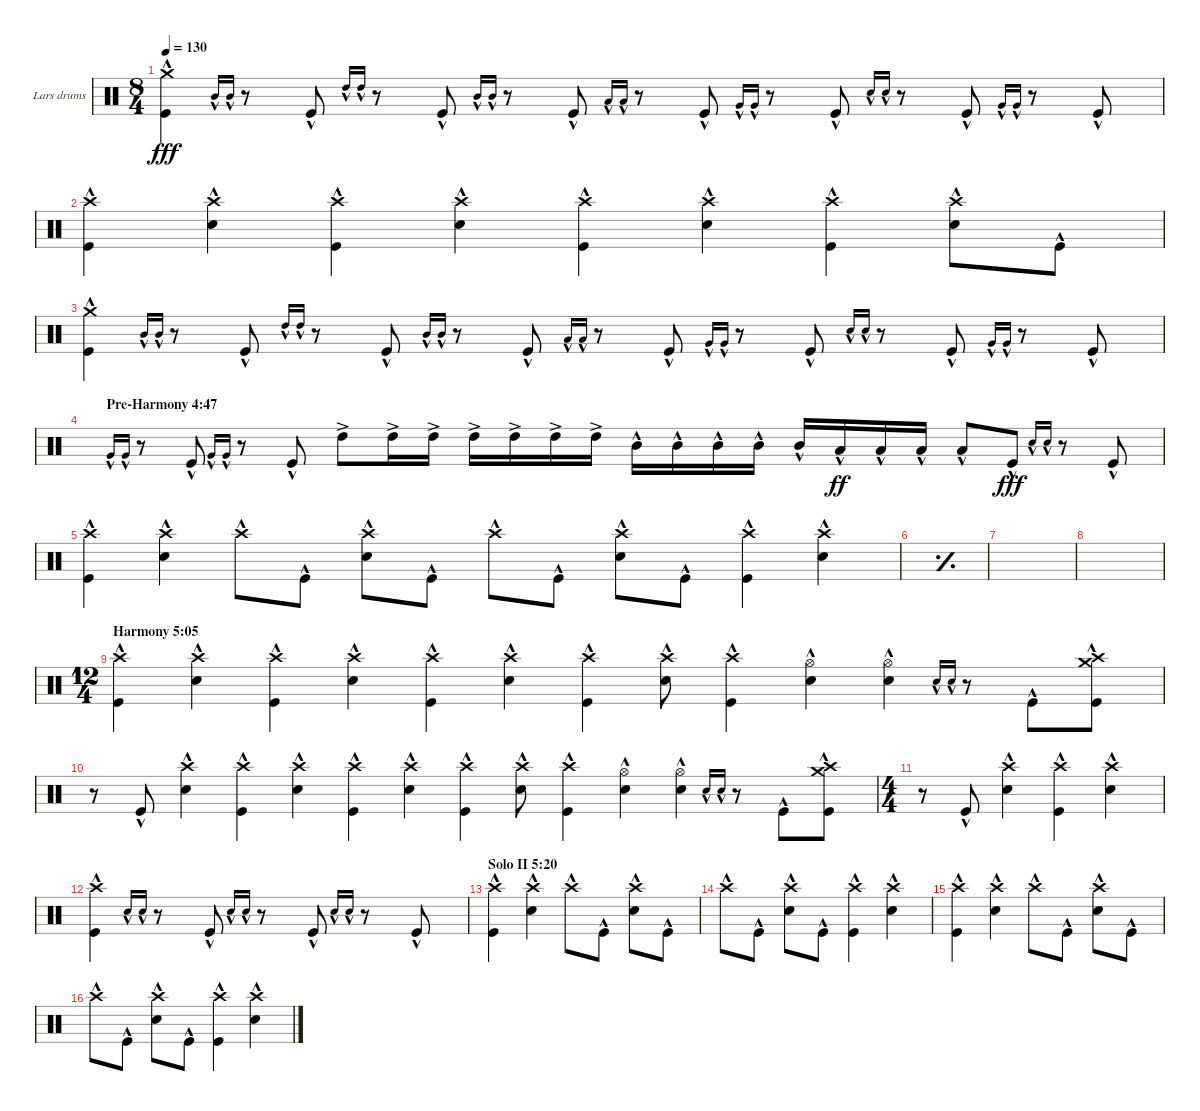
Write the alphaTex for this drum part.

\defaultSystemsLayout 4
\bracketExtendMode groupsimilarinstruments
\firstSystemTrackNameOrientation horizontal
\otherSystemsTrackNameOrientation horizontal
\track ("Lars drums" "Lars drums") {instrument percussion}
\staff {score}
\articulation defaults
\ts (8 4)
\tempo 130
\clef neutral
\ks c
("Crash medium (hit)"{hac} "Kick (hit)"{hac}).4{dy fff} "Mid Tom (hit)"{hac}.16{gr onbeat} "Mid Tom (hit)"{hac}.16{gr onbeat} r.8 "Kick (hit)"{hac}.8 "High Tom (hit)"{hac}.16{gr onbeat} "High Tom (hit)"{hac}.16{gr onbeat} r.8 "Kick (hit)"{hac}.8 "Mid Tom (hit)"{hac}.16{gr onbeat} "Mid Tom (hit)"{hac}.16{gr onbeat} r.8 "Kick (hit)"{hac}.8 "Low Tom (hit)"{hac}.16{gr onbeat} "Low Tom (hit)"{hac}.16{gr onbeat} r.8 "Kick (hit)"{hac}.8 "Very Low Tom (hit)"{hac}.16{gr onbeat} "Very Low Tom (hit)"{hac}.16{gr onbeat} r.8 "Kick (hit)"{hac}.8 "Snare (hit) 2"{hac}.16{gr onbeat} "Snare (hit) 2"{hac}.16{gr onbeat} r.8 "Kick (hit)"{hac}.8 "Very Low Tom (hit)"{hac}.16{gr onbeat} "Very Low Tom (hit)"{hac}.16{gr onbeat} r.8 "Kick (hit)"{hac}.8 |
("Crash high (hit)"{hac} "Kick (hit)"{hac}).4 ("Crash high (hit)"{hac} "Snare (hit) 2"{hac}).4 ("Crash high (hit)"{hac} "Kick (hit)"{hac}).4 ("Crash high (hit)"{hac} "Snare (hit) 2"{hac}).4 ("Crash high (hit)"{hac} "Kick (hit)"{hac}).4 ("Crash high (hit)"{hac} "Snare (hit) 2"{hac}).4 ("Crash high (hit)"{hac} "Kick (hit)"{hac}).4 ("Crash high (hit)"{hac} "Snare (hit) 2"{hac}).8 "Kick (hit)"{hac}.8 |
("Crash medium (hit)"{hac} "Kick (hit)"{hac}).4 "Mid Tom (hit)"{hac}.16{gr onbeat} "Mid Tom (hit)"{hac}.16{gr onbeat} r.8 "Kick (hit)"{hac}.8 "High Tom (hit)"{hac}.16{gr onbeat} "High Tom (hit)"{hac}.16{gr onbeat} r.8 "Kick (hit)"{hac}.8 "Mid Tom (hit)"{hac}.16{gr onbeat} "Mid Tom (hit)"{hac}.16{gr onbeat} r.8 "Kick (hit)"{hac}.8 "Low Tom (hit)"{hac}.16{gr onbeat} "Low Tom (hit)"{hac}.16{gr onbeat} r.8 "Kick (hit)"{hac}.8 "Very Low Tom (hit)"{hac}.16{gr onbeat} "Very Low Tom (hit)"{hac}.16{gr onbeat} r.8 "Kick (hit)"{hac}.8 "Snare (hit) 2"{hac}.16{gr onbeat} "Snare (hit) 2"{hac}.16{gr onbeat} r.8 "Kick (hit)"{hac}.8 "Very Low Tom (hit)"{hac}.16{gr onbeat} "Very Low Tom (hit)"{hac}.16{gr onbeat} r.8 "Kick (hit)"{hac}.8 |
\section ("" "Pre-Harmony 4:47")
"Very Low Tom (hit)"{hac}.16{gr onbeat} "Very Low Tom (hit)"{hac}.16{gr onbeat} r.8 "Kick (hit)"{hac}.8 "Very Low Tom (hit)"{hac}.16{gr onbeat} "Very Low Tom (hit)"{hac}.16{gr onbeat} r.8 "Kick (hit)"{hac}.8 "High Tom (hit)"{ac}.8 "High Tom (hit)"{ac}.16 "High Tom (hit)"{ac}.16 "High Tom (hit)"{ac}.16 "High Tom (hit)"{ac}.16 "High Tom (hit)"{ac}.16 "High Tom (hit)"{ac}.16 "Mid Tom (hit)"{hac}.16 "Mid Tom (hit)"{hac}.16 "Mid Tom (hit)"{hac}.16 "Mid Tom (hit)"{hac}.16 "Mid Tom (hit)"{hac}.16 "Low Tom (hit)"{hac}.16{dy ff} "Low Tom (hit)"{hac}.16 "Low Tom (hit)"{hac}.16 "Low Tom (hit)"{hac}.8 "Kick (hit)"{hac}.8{dy fff} "Snare (hit) 2"{hac}.16{gr onbeat} "Snare (hit) 2"{hac}.16{gr onbeat} r.8 "Kick (hit)"{hac}.8 |
("Crash high (hit)"{hac} "Kick (hit)"{hac}).4 ("Crash high (hit)"{hac} "Snare (hit) 2"{hac}).4 "Crash high (hit)"{hac}.8 "Kick (hit)"{hac}.8 ("Crash high (hit)"{hac} "Snare (hit) 2"{hac}).8 "Kick (hit)"{hac}.8 "Crash high (hit)"{hac}.8 "Kick (hit)"{hac}.8 ("Crash high (hit)"{hac} "Snare (hit) 2"{hac}).8 "Kick (hit)"{hac}.8 ("Crash high (hit)"{hac} "Kick (hit)"{hac}).4 ("Crash high (hit)"{hac} "Snare (hit) 2"{hac}).4 |
\simile simple
|
|
|
\ts (12 4)
\section ("" "Harmony 5:05")
\simile none
("Crash high (hit)"{hac} "Kick (hit)"{hac}).4 ("Crash high (hit)"{hac} "Snare (hit) 2"{hac}).4 ("Crash high (hit)"{hac} "Kick (hit)"{hac}).4 ("Crash high (hit)"{hac} "Snare (hit) 2"{hac}).4 ("Crash high (hit)"{hac} "Kick (hit)"{hac}).4 ("Crash high (hit)"{hac} "Snare (hit) 2"{hac}).4 ("Crash high (hit)"{hac} "Kick (hit)"{hac}).4 ("Crash high (hit)"{hac} "Snare (hit) 2"{hac}).8 ("Crash high (hit)"{hac} "Kick (hit)"{hac}).4 ("Hi-Hat (open)"{hac} "Snare (hit) 2"{hac}).4 ("Hi-Hat (open)"{hac} "Snare (hit) 2"{hac}).4 "Snare (hit) 2"{hac}.16{gr onbeat} "Snare (hit) 2"{hac}.16{gr onbeat} r.8 "Kick (hit)"{hac}.8 ("Crash high (hit)"{hac} "Crash medium (hit)"{hac} "Kick (hit)"{hac}).8 |
r.8 "Kick (hit)"{hac}.8 ("Crash high (hit)"{hac} "Snare (hit) 2"{hac}).4 ("Crash high (hit)"{hac} "Kick (hit)"{hac}).4 ("Crash high (hit)"{hac} "Snare (hit) 2"{hac}).4 ("Crash high (hit)"{hac} "Kick (hit)"{hac}).4 ("Crash high (hit)"{hac} "Snare (hit) 2"{hac}).4 ("Crash high (hit)"{hac} "Kick (hit)"{hac}).4 ("Crash high (hit)"{hac} "Snare (hit) 2"{hac}).8 ("Crash high (hit)"{hac} "Kick (hit)"{hac}).4 ("Hi-Hat (open)"{hac} "Snare (hit) 2"{hac}).4 ("Hi-Hat (open)"{hac} "Snare (hit) 2"{hac}).4 "Snare (hit) 2"{hac}.16{gr onbeat} "Snare (hit) 2"{hac}.16{gr onbeat} r.8 "Kick (hit)"{hac}.8 ("Crash high (hit)"{hac} "Crash medium (hit)"{hac} "Kick (hit)"{hac}).8 |
\ts (4 4)
r.8 "Kick (hit)"{hac}.8 ("Crash high (hit)"{hac} "Snare (hit) 2"{hac}).4 ("Crash high (hit)"{hac} "Kick (hit)"{hac}).4 ("Crash high (hit)"{hac} "Snare (hit) 2"{hac}).4 |
("Crash high (hit)"{hac} "Kick (hit)"{hac}).4 "Snare (hit) 2"{hac}.16{gr onbeat} "Snare (hit) 2"{hac}.16{gr onbeat} r.8 "Kick (hit)"{hac}.8 "Snare (hit) 2"{hac}.16{gr onbeat} "Snare (hit) 2"{hac}.16{gr onbeat} r.8 "Kick (hit)"{hac}.8 "Snare (hit) 2"{hac}.16{gr onbeat} "Snare (hit) 2"{hac}.16{gr onbeat} r.8 "Kick (hit)"{hac}.8 |
\section ("" "Solo II 5:20")
("Crash high (hit)"{hac} "Kick (hit)"{hac}).4 ("Crash high (hit)"{hac} "Snare (hit) 2"{hac}).4 "Crash high (hit)"{hac}.8 "Kick (hit)"{hac}.8 ("Crash high (hit)"{hac} "Snare (hit) 2"{hac}).8 "Kick (hit)"{hac}.8 |
"Crash high (hit)"{hac}.8 "Kick (hit)"{hac}.8 ("Crash high (hit)"{hac} "Snare (hit) 2"{hac}).8 "Kick (hit)"{hac}.8 ("Crash high (hit)"{hac} "Kick (hit)"{hac}).4 ("Crash high (hit)"{hac} "Snare (hit) 2"{hac}).4 |
("Crash high (hit)"{hac} "Kick (hit)"{hac}).4 ("Crash high (hit)"{hac} "Snare (hit) 2"{hac}).4 "Crash high (hit)"{hac}.8 "Kick (hit)"{hac}.8 ("Crash high (hit)"{hac} "Snare (hit) 2"{hac}).8 "Kick (hit)"{hac}.8 |
"Crash high (hit)"{hac}.8 "Kick (hit)"{hac}.8 ("Crash high (hit)"{hac} "Snare (hit) 2"{hac}).8 "Kick (hit)"{hac}.8 ("Crash high (hit)"{hac} "Kick (hit)"{hac}).4 ("Crash high (hit)"{hac} "Snare (hit) 2"{hac}).4
